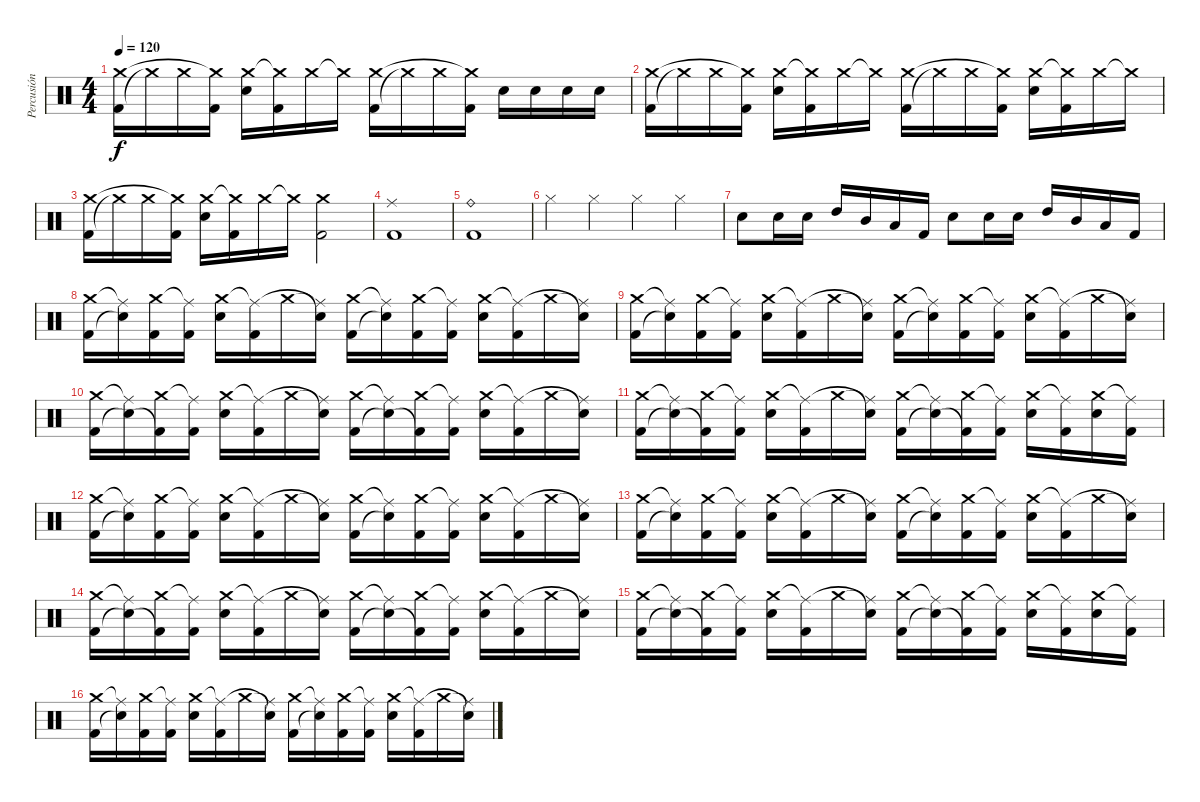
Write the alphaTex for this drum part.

\track ("Percusión" "Percusión") {instrument percussion}
\staff {score}
\articulation defaults
\ts (4 4)
\tempo 120
\clef neutral
\ks c
("Kick (hit) 2" "Crash medium (hit)").16{dy f} "Crash medium (hit)"{t}.16 "Crash medium (hit)".16 ("Kick (hit) 2" "Crash medium (hit)"{t}).16 ("Electric Snare (hit)" "Crash medium (hit)").16 ("Kick (hit) 2" "Crash medium (hit)"{t}).16 "Crash medium (hit)".16 "Crash medium (hit)"{t}.16 ("Kick (hit) 2" "Crash medium (hit)").16 "Crash medium (hit)"{t}.16 "Crash medium (hit)".16 ("Kick (hit) 2" "Crash medium (hit)"{t}).16 "Electric Snare (hit)".16 "Electric Snare (hit)".16 "Electric Snare (hit)".16 "Electric Snare (hit)".16 |
("Kick (hit) 2" "Crash medium (hit)").16 "Crash medium (hit)"{t}.16 "Crash medium (hit)".16 ("Kick (hit) 2" "Crash medium (hit)"{t}).16 ("Electric Snare (hit)" "Crash medium (hit)").16 ("Kick (hit) 2" "Crash medium (hit)"{t}).16 "Crash medium (hit)".16 "Crash medium (hit)"{t}.16 ("Kick (hit) 2" "Crash medium (hit)").16 "Crash medium (hit)"{t}.16 "Crash medium (hit)".16 ("Kick (hit) 2" "Crash medium (hit)"{t}).16 ("Electric Snare (hit)" "Crash medium (hit)").16 ("Kick (hit) 2" "Crash medium (hit)"{t}).16 "Crash medium (hit)".16 "Crash medium (hit)"{t}.16 |
("Kick (hit) 2" "Crash medium (hit)").16 "Crash medium (hit)"{t}.16 "Crash medium (hit)".16 ("Kick (hit) 2" "Crash medium (hit)"{t}).16 ("Electric Snare (hit)" "Crash medium (hit)").16 ("Kick (hit) 2" "Crash medium (hit)"{t}).16 "Crash medium (hit)".16 "Crash medium (hit)"{t}.16 ("Kick (hit) 2" "Crash medium (hit)").2 |
("Ride (middle)" "Kick (hit) 2").1 |
("Ride (bell)" "Kick (hit) 2").1 |
"Hi-Hat (closed)".4 "Hi-Hat (closed)".4 "Hi-Hat (closed)".4 "Hi-Hat (closed)".4 |
"Electric Snare (hit)".8 "Electric Snare (hit)".16 "Electric Snare (hit)".16 "High Tom (hit)".16 "Mid Tom (hit)".16 "Low Tom (hit)".16 "Kick (hit) 2".16 "Electric Snare (hit)".8 "Electric Snare (hit)".16 "Electric Snare (hit)".16 "High Tom (hit)".16 "Mid Tom (hit)".16 "Low Tom (hit)".16 "Kick (hit) 2".16 |
("Kick (hit) 2" "Crash medium (hit)").16 ("Snare (hit)"{t} "Ride (middle)"{t}).16 ("Kick (hit) 2" "Crash medium (hit)").16 ("Kick (hit) 2" "Ride (middle)"{t}).16 ("Electric Snare (hit)" "Crash medium (hit)").16 ("Kick (hit) 2" "Ride (middle)"{t}).16 "Crash medium (hit)".16 ("Snare (hit)"{t} "Ride (middle)"{t}).16 ("Kick (hit) 2" "Crash medium (hit)").16 ("Snare (hit)"{t} "Ride (middle)"{t}).16 ("Kick (hit) 2" "Crash medium (hit)").16 ("Kick (hit) 2" "Ride (middle)"{t}).16 ("Electric Snare (hit)" "Crash medium (hit)").16 ("Kick (hit) 2" "Ride (middle)"{t}).16 "Crash medium (hit)".16 ("Snare (hit)"{t} "Ride (middle)"{t}).16 |
("Kick (hit) 2" "Crash medium (hit)").16 ("Snare (hit)"{t} "Ride (middle)"{t}).16 ("Kick (hit) 2" "Crash medium (hit)").16 ("Kick (hit) 2" "Ride (middle)"{t}).16 ("Electric Snare (hit)" "Crash medium (hit)").16 ("Kick (hit) 2" "Ride (middle)"{t}).16 "Crash medium (hit)".16 ("Snare (hit)"{t} "Ride (middle)"{t}).16 ("Kick (hit) 2" "Crash medium (hit)").16 ("Snare (hit)"{t} "Ride (middle)"{t}).16 ("Kick (hit) 2" "Crash medium (hit)").16 ("Kick (hit) 2" "Ride (middle)"{t}).16 ("Electric Snare (hit)" "Crash medium (hit)").16 ("Kick (hit) 2" "Ride (middle)"{t}).16 "Crash medium (hit)".16 ("Snare (hit)"{t} "Ride (middle)"{t}).16 |
("Kick (hit) 2" "Crash medium (hit)").16 ("Snare (hit)"{t} "Ride (middle)"{t}).16 ("Kick (hit) 2"{t} "Crash medium (hit)").16 ("Kick (hit) 2" "Ride (middle)"{t}).16 ("Electric Snare (hit)" "Crash medium (hit)").16 ("Kick (hit) 2" "Ride (middle)"{t}).16 "Crash medium (hit)".16 ("Snare (hit)"{t} "Ride (middle)"{t}).16 ("Kick (hit) 2" "Crash medium (hit)").16 ("Snare (hit)"{t} "Ride (middle)"{t}).16 ("Kick (hit) 2"{t} "Crash medium (hit)").16 ("Kick (hit) 2" "Ride (middle)"{t}).16 ("Electric Snare (hit)" "Crash medium (hit)").16 ("Kick (hit) 2" "Ride (middle)"{t}).16 "Crash medium (hit)".16 ("Snare (hit)"{t} "Ride (middle)"{t}).16 |
("Kick (hit) 2" "Crash medium (hit)").16 ("Snare (hit)"{t} "Ride (middle)"{t}).16 ("Kick (hit) 2"{t} "Crash medium (hit)").16 ("Kick (hit) 2" "Ride (middle)"{t}).16 ("Electric Snare (hit)" "Crash medium (hit)").16 ("Kick (hit) 2" "Ride (middle)"{t}).16 "Crash medium (hit)".16 ("Snare (hit)"{t} "Ride (middle)"{t}).16 ("Kick (hit) 2" "Crash medium (hit)").16 ("Snare (hit)"{t} "Ride (middle)"{t}).16 ("Kick (hit) 2"{t} "Crash medium (hit)").16 ("Kick (hit) 2" "Ride (middle)"{t}).16 ("Electric Snare (hit)" "Crash medium (hit)").16 ("Kick (hit) 2" "Ride (middle)"{t}).16 ("Electric Snare (hit)" "Crash medium (hit)").16 ("Kick (hit) 2" "Ride (middle)"{t}).16 |
("Kick (hit) 2" "Crash medium (hit)").16 ("Snare (hit)"{t} "Ride (middle)"{t}).16 ("Kick (hit) 2" "Crash medium (hit)").16 ("Kick (hit) 2" "Ride (middle)"{t}).16 ("Electric Snare (hit)" "Crash medium (hit)").16 ("Kick (hit) 2" "Ride (middle)"{t}).16 "Crash medium (hit)".16 ("Snare (hit)"{t} "Ride (middle)"{t}).16 ("Kick (hit) 2" "Crash medium (hit)").16 ("Snare (hit)"{t} "Ride (middle)"{t}).16 ("Kick (hit) 2" "Crash medium (hit)").16 ("Kick (hit) 2" "Ride (middle)"{t}).16 ("Electric Snare (hit)" "Crash medium (hit)").16 ("Kick (hit) 2" "Ride (middle)"{t}).16 "Crash medium (hit)".16 ("Snare (hit)"{t} "Ride (middle)"{t}).16 |
("Kick (hit) 2" "Crash medium (hit)").16 ("Snare (hit)"{t} "Ride (middle)"{t}).16 ("Kick (hit) 2" "Crash medium (hit)").16 ("Kick (hit) 2" "Ride (middle)"{t}).16 ("Electric Snare (hit)" "Crash medium (hit)").16 ("Kick (hit) 2" "Ride (middle)"{t}).16 "Crash medium (hit)".16 ("Snare (hit)"{t} "Ride (middle)"{t}).16 ("Kick (hit) 2" "Crash medium (hit)").16 ("Snare (hit)"{t} "Ride (middle)"{t}).16 ("Kick (hit) 2" "Crash medium (hit)").16 ("Kick (hit) 2" "Ride (middle)"{t}).16 ("Electric Snare (hit)" "Crash medium (hit)").16 ("Kick (hit) 2" "Ride (middle)"{t}).16 "Crash medium (hit)".16 ("Snare (hit)"{t} "Ride (middle)"{t}).16 |
("Kick (hit) 2" "Crash medium (hit)").16 ("Snare (hit)"{t} "Ride (middle)"{t}).16 ("Kick (hit) 2"{t} "Crash medium (hit)").16 ("Kick (hit) 2" "Ride (middle)"{t}).16 ("Electric Snare (hit)" "Crash medium (hit)").16 ("Kick (hit) 2" "Ride (middle)"{t}).16 "Crash medium (hit)".16 ("Snare (hit)"{t} "Ride (middle)"{t}).16 ("Kick (hit) 2" "Crash medium (hit)").16 ("Snare (hit)"{t} "Ride (middle)"{t}).16 ("Kick (hit) 2"{t} "Crash medium (hit)").16 ("Kick (hit) 2" "Ride (middle)"{t}).16 ("Electric Snare (hit)" "Crash medium (hit)").16 ("Kick (hit) 2" "Ride (middle)"{t}).16 "Crash medium (hit)".16 ("Snare (hit)"{t} "Ride (middle)"{t}).16 |
("Kick (hit) 2" "Crash medium (hit)").16 ("Snare (hit)"{t} "Ride (middle)"{t}).16 ("Kick (hit) 2"{t} "Crash medium (hit)").16 ("Kick (hit) 2" "Ride (middle)"{t}).16 ("Electric Snare (hit)" "Crash medium (hit)").16 ("Kick (hit) 2" "Ride (middle)"{t}).16 "Crash medium (hit)".16 ("Snare (hit)"{t} "Ride (middle)"{t}).16 ("Kick (hit) 2" "Crash medium (hit)").16 ("Snare (hit)"{t} "Ride (middle)"{t}).16 ("Kick (hit) 2"{t} "Crash medium (hit)").16 ("Kick (hit) 2" "Ride (middle)"{t}).16 ("Electric Snare (hit)" "Crash medium (hit)").16 ("Kick (hit) 2" "Ride (middle)"{t}).16 ("Electric Snare (hit)" "Crash medium (hit)").16 ("Kick (hit) 2" "Ride (middle)"{t}).16 |
("Kick (hit) 2" "Crash medium (hit)").16 ("Snare (hit)"{t} "Ride (middle)"{t}).16 ("Kick (hit) 2" "Crash medium (hit)").16 ("Kick (hit) 2" "Ride (middle)"{t}).16 ("Electric Snare (hit)" "Crash medium (hit)").16 ("Kick (hit) 2" "Ride (middle)"{t}).16 "Crash medium (hit)".16 ("Snare (hit)"{t} "Ride (middle)"{t}).16 ("Kick (hit) 2" "Crash medium (hit)").16 ("Snare (hit)"{t} "Ride (middle)"{t}).16 ("Kick (hit) 2" "Crash medium (hit)").16 ("Kick (hit) 2" "Ride (middle)"{t}).16 ("Electric Snare (hit)" "Crash medium (hit)").16 ("Kick (hit) 2" "Ride (middle)"{t}).16 "Crash medium (hit)".16 ("Snare (hit)"{t} "Ride (middle)"{t}).16
